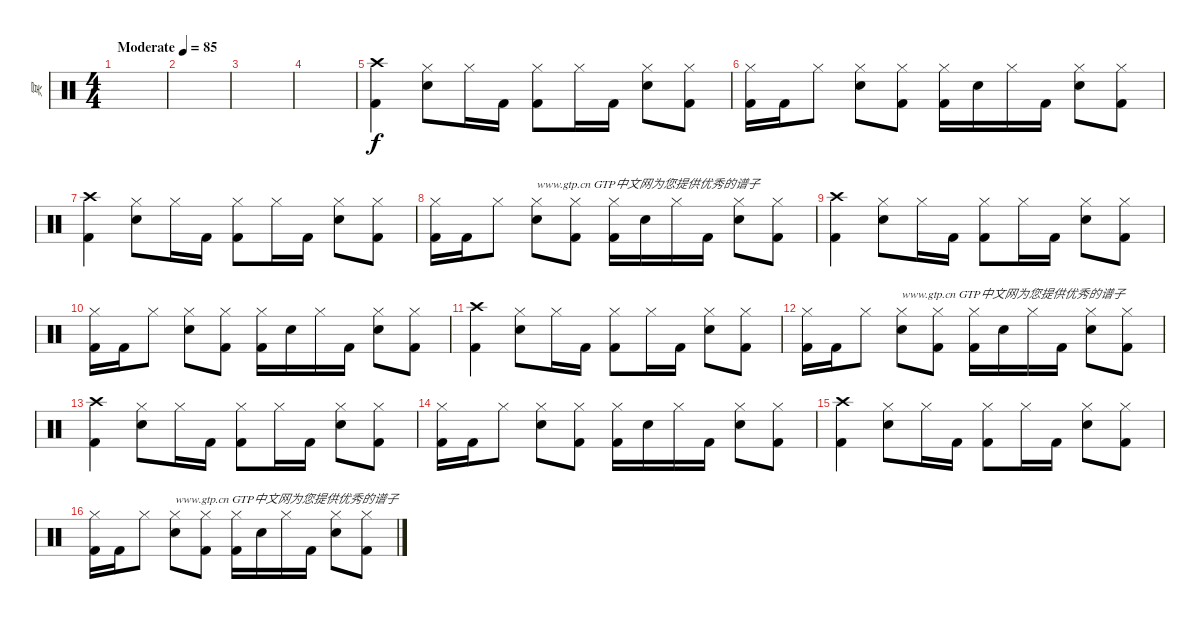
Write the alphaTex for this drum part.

\track ("冥" "冥") {instrument percussion}
\staff {score}
\articulation defaults
\ts (4 4)
\tempo (85 "Moderate")
\clef neutral
\ks c
|
|
|
|
("Crash high (hit)" "Kick (hit) 2").4 ("Hi-Hat (closed)" "Snare (hit) 2").8 "Hi-Hat (closed)".16 "Kick (hit) 2".16 ("Hi-Hat (closed)" "Kick (hit) 2").8 "Hi-Hat (closed)".16 "Kick (hit) 2".16 ("Hi-Hat (closed)" "Snare (hit) 2").8 ("Hi-Hat (closed)" "Kick (hit) 2").8 |
("Hi-Hat (closed)" "Kick (hit) 2").16 "Kick (hit) 2".16 "Hi-Hat (closed)".8 ("Hi-Hat (closed)" "Snare (hit) 2").8 ("Hi-Hat (closed)" "Kick (hit) 2").8 ("Hi-Hat (closed)" "Kick (hit) 2").16 "Snare (hit) 2".16 "Hi-Hat (closed)".16 "Kick (hit) 2".16 ("Hi-Hat (closed)" "Snare (hit) 2").8 ("Hi-Hat (closed)" "Kick (hit) 2").8 |
("Crash high (hit)" "Kick (hit) 2").4 ("Hi-Hat (closed)" "Snare (hit) 2").8 "Hi-Hat (closed)".16 "Kick (hit) 2".16 ("Hi-Hat (closed)" "Kick (hit) 2").8 "Hi-Hat (closed)".16 "Kick (hit) 2".16 ("Hi-Hat (closed)" "Snare (hit) 2").8 ("Hi-Hat (closed)" "Kick (hit) 2").8 |
("Hi-Hat (closed)" "Kick (hit) 2").16 "Kick (hit) 2".16 "Hi-Hat (closed)".8 ("Hi-Hat (closed)" "Snare (hit) 2").8{txt "www.gtp.cn GTP中文网为您提供优秀的谱子"} ("Hi-Hat (closed)" "Kick (hit) 2").8 ("Hi-Hat (closed)" "Kick (hit) 2").16 "Snare (hit) 2".16 "Hi-Hat (closed)".16 "Kick (hit) 2".16 ("Hi-Hat (closed)" "Snare (hit) 2").8 ("Hi-Hat (closed)" "Kick (hit) 2").8 |
("Crash high (hit)" "Kick (hit) 2").4 ("Hi-Hat (closed)" "Snare (hit) 2").8 "Hi-Hat (closed)".16 "Kick (hit) 2".16 ("Hi-Hat (closed)" "Kick (hit) 2").8 "Hi-Hat (closed)".16 "Kick (hit) 2".16 ("Hi-Hat (closed)" "Snare (hit) 2").8 ("Hi-Hat (closed)" "Kick (hit) 2").8 |
("Hi-Hat (closed)" "Kick (hit) 2").16 "Kick (hit) 2".16 "Hi-Hat (closed)".8 ("Hi-Hat (closed)" "Snare (hit) 2").8 ("Hi-Hat (closed)" "Kick (hit) 2").8 ("Hi-Hat (closed)" "Kick (hit) 2").16 "Snare (hit) 2".16 "Hi-Hat (closed)".16 "Kick (hit) 2".16 ("Hi-Hat (closed)" "Snare (hit) 2").8 ("Hi-Hat (closed)" "Kick (hit) 2").8 |
("Crash high (hit)" "Kick (hit) 2").4 ("Hi-Hat (closed)" "Snare (hit) 2").8 "Hi-Hat (closed)".16 "Kick (hit) 2".16 ("Hi-Hat (closed)" "Kick (hit) 2").8 "Hi-Hat (closed)".16 "Kick (hit) 2".16 ("Hi-Hat (closed)" "Snare (hit) 2").8 ("Hi-Hat (closed)" "Kick (hit) 2").8 |
("Hi-Hat (closed)" "Kick (hit) 2").16 "Kick (hit) 2".16 "Hi-Hat (closed)".8 ("Hi-Hat (closed)" "Snare (hit) 2").8{txt "www.gtp.cn GTP中文网为您提供优秀的谱子"} ("Hi-Hat (closed)" "Kick (hit) 2").8 ("Hi-Hat (closed)" "Kick (hit) 2").16 "Snare (hit) 2".16 "Hi-Hat (closed)".16 "Kick (hit) 2".16 ("Hi-Hat (closed)" "Snare (hit) 2").8 ("Hi-Hat (closed)" "Kick (hit) 2").8 |
("Crash high (hit)" "Kick (hit) 2").4 ("Hi-Hat (closed)" "Snare (hit) 2").8 "Hi-Hat (closed)".16 "Kick (hit) 2".16 ("Hi-Hat (closed)" "Kick (hit) 2").8 "Hi-Hat (closed)".16 "Kick (hit) 2".16 ("Hi-Hat (closed)" "Snare (hit) 2").8 ("Hi-Hat (closed)" "Kick (hit) 2").8 |
("Hi-Hat (closed)" "Kick (hit) 2").16 "Kick (hit) 2".16 "Hi-Hat (closed)".8 ("Hi-Hat (closed)" "Snare (hit) 2").8 ("Hi-Hat (closed)" "Kick (hit) 2").8 ("Hi-Hat (closed)" "Kick (hit) 2").16 "Snare (hit) 2".16 "Hi-Hat (closed)".16 "Kick (hit) 2".16 ("Hi-Hat (closed)" "Snare (hit) 2").8 ("Hi-Hat (closed)" "Kick (hit) 2").8 |
("Crash high (hit)" "Kick (hit) 2").4 ("Hi-Hat (closed)" "Snare (hit) 2").8 "Hi-Hat (closed)".16 "Kick (hit) 2".16 ("Hi-Hat (closed)" "Kick (hit) 2").8 "Hi-Hat (closed)".16 "Kick (hit) 2".16 ("Hi-Hat (closed)" "Snare (hit) 2").8 ("Hi-Hat (closed)" "Kick (hit) 2").8 |
("Hi-Hat (closed)" "Kick (hit) 2").16 "Kick (hit) 2".16 "Hi-Hat (closed)".8 ("Hi-Hat (closed)" "Snare (hit) 2").8{txt "www.gtp.cn GTP中文网为您提供优秀的谱子"} ("Hi-Hat (closed)" "Kick (hit) 2").8 ("Hi-Hat (closed)" "Kick (hit) 2").16 "Snare (hit) 2".16 "Hi-Hat (closed)".16 "Kick (hit) 2".16 ("Hi-Hat (closed)" "Snare (hit) 2").8 ("Hi-Hat (closed)" "Kick (hit) 2").8
